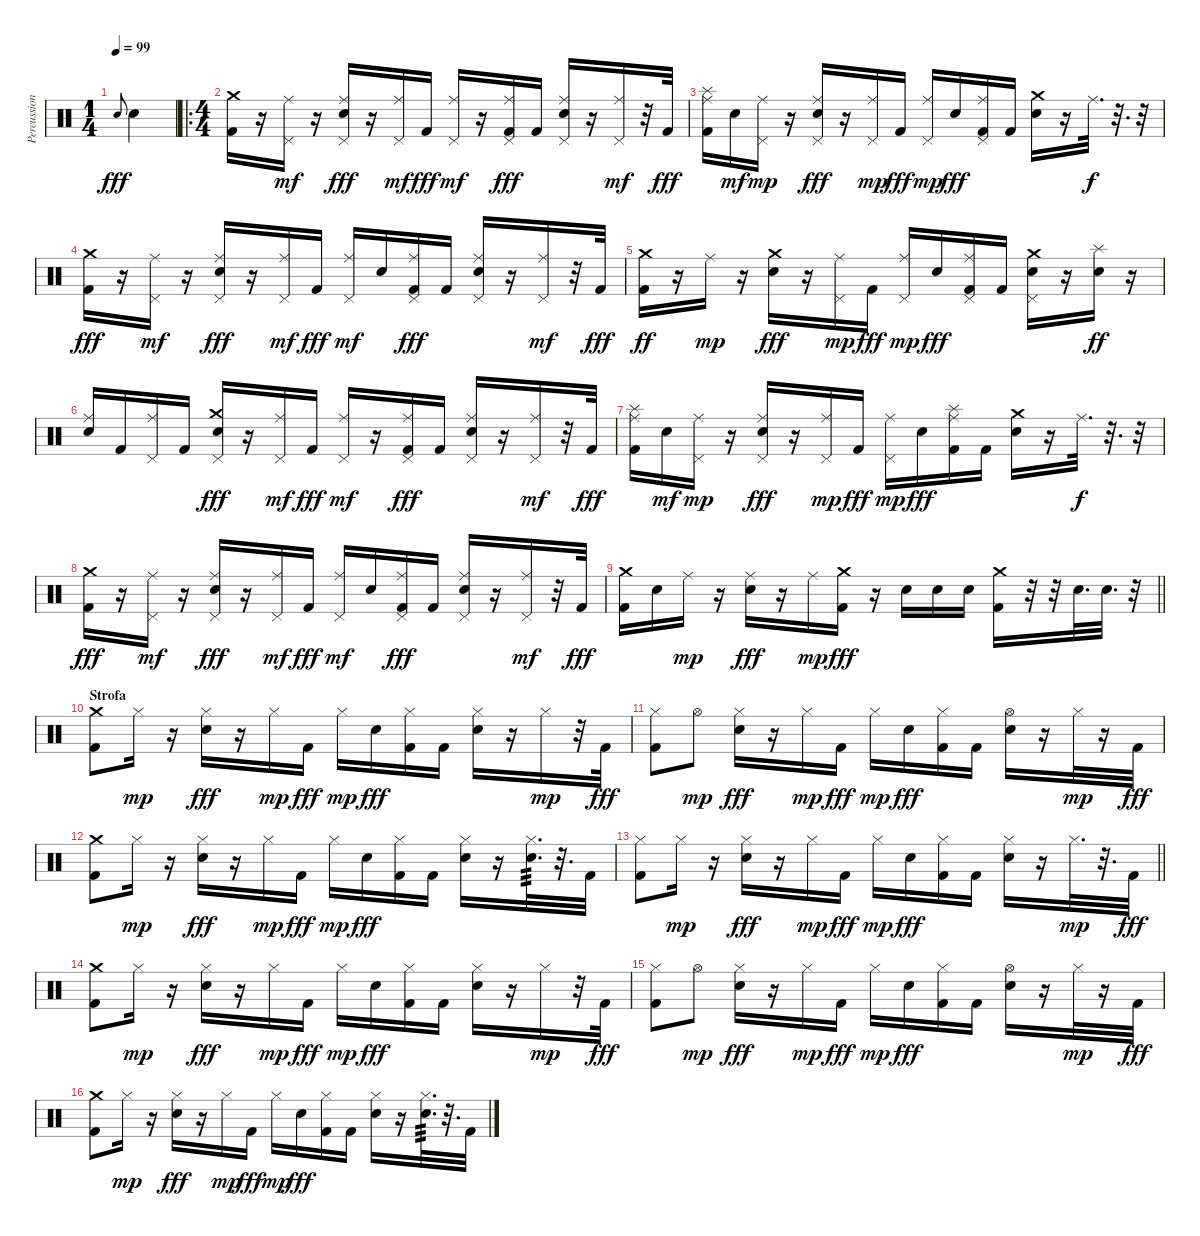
\track ("Percussion" "Percussion") {instrument percussion}
\staff {score}
\articulation defaults
\ts (1 4)
\tempo 99
\clef neutral
\ks c "Snare (hit) 2".8{gr onbeat dy fff} "Snare (hit) 2".4
|
\ro
\ts (4 4)
("Crash medium (hit)" "Kick (hit) 2").16 r.16 ("Ride (middle)" "Pedal Hi-Hat (hit)").16{dy mf} r.16 ("Ride (middle)" "Pedal Hi-Hat (hit)" "Snare (hit) 2").16{dy fff} r.16 ("Ride (middle)" "Pedal Hi-Hat (hit)").16{dy mf} "Kick (hit) 2".16{dy fff} ("Ride (middle)" "Pedal Hi-Hat (hit)").16{dy mf} r.16 ("Ride (middle)" "Pedal Hi-Hat (hit)" "Kick (hit) 2").16{dy fff} "Kick (hit) 2".16 ("Ride (middle)" "Pedal Hi-Hat (hit)" "Snare (hit) 2").16 r.16 ("Ride (middle)" "Pedal Hi-Hat (hit)").16{dy mf} r.32 "Kick (hit) 2".32{dy fff} |
("Ride (middle)" "Splash (hit)" "Kick (hit) 2").16 "Snare (hit) 2".16{dy mf} ("Ride (middle)" "Pedal Hi-Hat (hit)").16{dy mp} r.16 ("Ride (middle)" "Pedal Hi-Hat (hit)" "Snare (hit) 2").16{dy fff} r.16 ("Ride (middle)" "Pedal Hi-Hat (hit)").16{dy mp} "Kick (hit) 2".16{dy fff} ("Ride (middle)" "Pedal Hi-Hat (hit)").16{dy mp} "Snare (hit) 2".16{dy fff} ("Ride (middle)" "Pedal Hi-Hat (hit)" "Kick (hit) 2").16 "Kick (hit) 2".16 ("Crash medium (hit)" "Snare (hit) 2").16 r.16 "Ride (middle)".32{d dy f} r.32{d} r.32 |
("Crash medium (hit)" "Kick (hit) 2").16{dy fff} r.16 ("Ride (middle)" "Pedal Hi-Hat (hit)").16{dy mf} r.16 ("Ride (middle)" "Pedal Hi-Hat (hit)" "Snare (hit) 2").16{dy fff} r.16 ("Ride (middle)" "Pedal Hi-Hat (hit)").16{dy mf} "Kick (hit) 2".16{dy fff} ("Ride (middle)" "Pedal Hi-Hat (hit)").16{dy mf} "Snare (hit) 2".16 ("Ride (middle)" "Pedal Hi-Hat (hit)" "Kick (hit) 2").16{dy fff} "Kick (hit) 2".16 ("Ride (middle)" "Pedal Hi-Hat (hit)" "Snare (hit) 2").16 r.16 ("Ride (middle)" "Pedal Hi-Hat (hit)").16{dy mf} r.32 "Kick (hit) 2".32{dy fff} |
("Crash medium (hit)" "Kick (hit) 2").16{dy ff} r.16 "Ride (middle)".16{dy mp} r.16 ("Crash medium (hit)" "Snare (hit) 2").16{dy fff} r.16 ("Ride (middle)" "Pedal Hi-Hat (hit)").16{dy mp} "Kick (hit) 2".16{dy fff} ("Ride (middle)" "Pedal Hi-Hat (hit)").16{dy mp} "Snare (hit) 2".16{dy fff} ("Ride (middle)" "Pedal Hi-Hat (hit)" "Kick (hit) 2").16 "Kick (hit) 2".16 ("Crash medium (hit)" "Pedal Hi-Hat (hit)" "Snare (hit) 2").16 r.16 ("Splash (hit)" "Snare (hit) 2").16{dy ff} r.16 |
("Ride (middle)" "Snare (hit) 2").16 "Kick (hit) 2".16 ("Ride (middle)" "Pedal Hi-Hat (hit)").16 "Kick (hit) 2".16 ("Crash medium (hit)" "Pedal Hi-Hat (hit)" "Snare (hit) 2").16{dy fff} r.16 ("Ride (middle)" "Pedal Hi-Hat (hit)").16{dy mf} "Kick (hit) 2".16{dy fff} ("Ride (middle)" "Pedal Hi-Hat (hit)").16{dy mf} r.16 ("Ride (middle)" "Pedal Hi-Hat (hit)" "Kick (hit) 2").16{dy fff} "Kick (hit) 2".16 ("Ride (middle)" "Pedal Hi-Hat (hit)" "Snare (hit) 2").16 r.16 ("Ride (middle)" "Pedal Hi-Hat (hit)").16{dy mf} r.32 "Kick (hit) 2".32{dy fff} |
("Ride (middle)" "Splash (hit)" "Kick (hit) 2").16 "Snare (hit) 2".16{dy mf} ("Ride (middle)" "Pedal Hi-Hat (hit)").16{dy mp} r.16 ("Ride (middle)" "Pedal Hi-Hat (hit)" "Snare (hit) 2").16{dy fff} r.16 ("Ride (middle)" "Pedal Hi-Hat (hit)").16{dy mp} "Kick (hit) 2".16{dy fff} ("Ride (middle)" "Pedal Hi-Hat (hit)").16{dy mp} "Snare (hit) 2".16{dy fff} ("Ride (middle)" "Splash (hit)" "Kick (hit) 2").16 "Kick (hit) 2".16 ("Crash medium (hit)" "Snare (hit) 2").16 r.16 "Ride (middle)".32{d dy f} r.32{d} r.32 |
("Crash medium (hit)" "Kick (hit) 2").16{dy fff} r.16 ("Ride (middle)" "Pedal Hi-Hat (hit)").16{dy mf} r.16 ("Ride (middle)" "Pedal Hi-Hat (hit)" "Snare (hit) 2").16{dy fff} r.16 ("Ride (middle)" "Pedal Hi-Hat (hit)").16{dy mf} "Kick (hit) 2".16{dy fff} ("Ride (middle)" "Pedal Hi-Hat (hit)").16{dy mf} "Snare (hit) 2".16 ("Ride (middle)" "Pedal Hi-Hat (hit)" "Kick (hit) 2").16{dy fff} "Kick (hit) 2".16 ("Ride (middle)" "Pedal Hi-Hat (hit)" "Snare (hit) 2").16 r.16 ("Ride (middle)" "Pedal Hi-Hat (hit)").16{dy mf} r.32 "Kick (hit) 2".32{dy fff} |
\barLineRight lightlight
("Crash medium (hit)" "Kick (hit) 2").16 "Snare (hit) 2".16 "Ride (middle)".16{dy mp} r.16 ("Ride (middle)" "Snare (hit) 2").16{dy fff} r.16 "Ride (middle)".16{dy mp} ("Crash medium (hit)" "Kick (hit) 2").16{dy fff} r.16 "Snare (hit) 2".16 "Snare (hit) 2".16 "Snare (hit) 2".16 ("Crash medium (hit)" "Kick (hit) 2").16 r.32 r.32 "Snare (hit) 2".32{d} "Snare (hit) 2".32{d} r.32 |
\section ("" "Strofa")
("Crash medium (hit)" "Kick (hit) 2").8 "Hi-Hat (closed)".16{dy mp} r.16 ("Hi-Hat (closed)" "Snare (hit) 2").16{dy fff} r.16 "Hi-Hat (closed)".16{dy mp} "Kick (hit) 2".16{dy fff} "Hi-Hat (closed)".16{dy mp} "Snare (hit) 2".16{dy fff} ("Hi-Hat (closed)" "Kick (hit) 2").16 "Kick (hit) 2".16 ("Hi-Hat (closed)" "Snare (hit) 2").16 r.16 "Hi-Hat (closed)".16{dy mp} r.32 "Kick (hit) 2".32{dy fff} |
("Hi-Hat (closed)" "Kick (hit) 2").8 "Hi-Hat (open)".8{dy mp} ("Hi-Hat (closed)" "Snare (hit) 2").16{dy fff} r.16 "Hi-Hat (closed)".16{dy mp} "Kick (hit) 2".16{dy fff} "Hi-Hat (closed)".16{dy mp} "Snare (hit) 2".16{dy fff} ("Hi-Hat (closed)" "Kick (hit) 2").16 "Kick (hit) 2".16 ("Hi-Hat (open)" "Snare (hit) 2").16 r.16 "Hi-Hat (closed)".32{dy mp} r.16 "Kick (hit) 2".32{dy fff} |
("Crash medium (hit)" "Kick (hit) 2").8 "Hi-Hat (closed)".16{dy mp} r.16 ("Hi-Hat (closed)" "Snare (hit) 2").16{dy fff} r.16 "Hi-Hat (closed)".16{dy mp} "Kick (hit) 2".16{dy fff} "Hi-Hat (closed)".16{dy mp} "Snare (hit) 2".16{dy fff} ("Hi-Hat (closed)" "Kick (hit) 2").16 "Kick (hit) 2".16 ("Hi-Hat (closed)" "Snare (hit) 2").16 r.16 ("Hi-Hat (closed)" "Snare (hit) 2").32{d tp 3} r.32{d} "Kick (hit) 2".32 |
\barLineRight lightlight
("Hi-Hat (closed)" "Kick (hit) 2").8 "Hi-Hat (closed)".16{dy mp} r.16 ("Hi-Hat (closed)" "Snare (hit) 2").16{dy fff} r.16 "Hi-Hat (closed)".16{dy mp} "Kick (hit) 2".16{dy fff} "Hi-Hat (closed)".16{dy mp} "Snare (hit) 2".16{dy fff} ("Hi-Hat (closed)" "Kick (hit) 2").16 "Kick (hit) 2".16 ("Hi-Hat (closed)" "Snare (hit) 2").16 r.16 "Hi-Hat (closed)".32{d dy mp} r.32{d} "Kick (hit) 2".32{dy fff} |
("Crash medium (hit)" "Kick (hit) 2").8 "Hi-Hat (closed)".16{dy mp} r.16 ("Hi-Hat (closed)" "Snare (hit) 2").16{dy fff} r.16 "Hi-Hat (closed)".16{dy mp} "Kick (hit) 2".16{dy fff} "Hi-Hat (closed)".16{dy mp} "Snare (hit) 2".16{dy fff} ("Hi-Hat (closed)" "Kick (hit) 2").16 "Kick (hit) 2".16 ("Hi-Hat (closed)" "Snare (hit) 2").16 r.16 "Hi-Hat (closed)".16{dy mp} r.32 "Kick (hit) 2".32{dy fff} |
("Hi-Hat (closed)" "Kick (hit) 2").8 "Hi-Hat (open)".8{dy mp} ("Hi-Hat (closed)" "Snare (hit) 2").16{dy fff} r.16 "Hi-Hat (closed)".16{dy mp} "Kick (hit) 2".16{dy fff} "Hi-Hat (closed)".16{dy mp} "Snare (hit) 2".16{dy fff} ("Hi-Hat (closed)" "Kick (hit) 2").16 "Kick (hit) 2".16 ("Hi-Hat (open)" "Snare (hit) 2").16 r.16 "Hi-Hat (closed)".32{dy mp} r.16 "Kick (hit) 2".32{dy fff} |
("Crash medium (hit)" "Kick (hit) 2").8 "Hi-Hat (closed)".16{dy mp} r.16 ("Hi-Hat (closed)" "Snare (hit) 2").16{dy fff} r.16 "Hi-Hat (closed)".16{dy mp} "Kick (hit) 2".16{dy fff} "Hi-Hat (closed)".16{dy mp} "Snare (hit) 2".16{dy fff} ("Hi-Hat (closed)" "Kick (hit) 2").16 "Kick (hit) 2".16 ("Hi-Hat (closed)" "Snare (hit) 2").16 r.16 ("Hi-Hat (closed)" "Snare (hit) 2").32{d tp 3} r.32{d} "Kick (hit) 2".32
